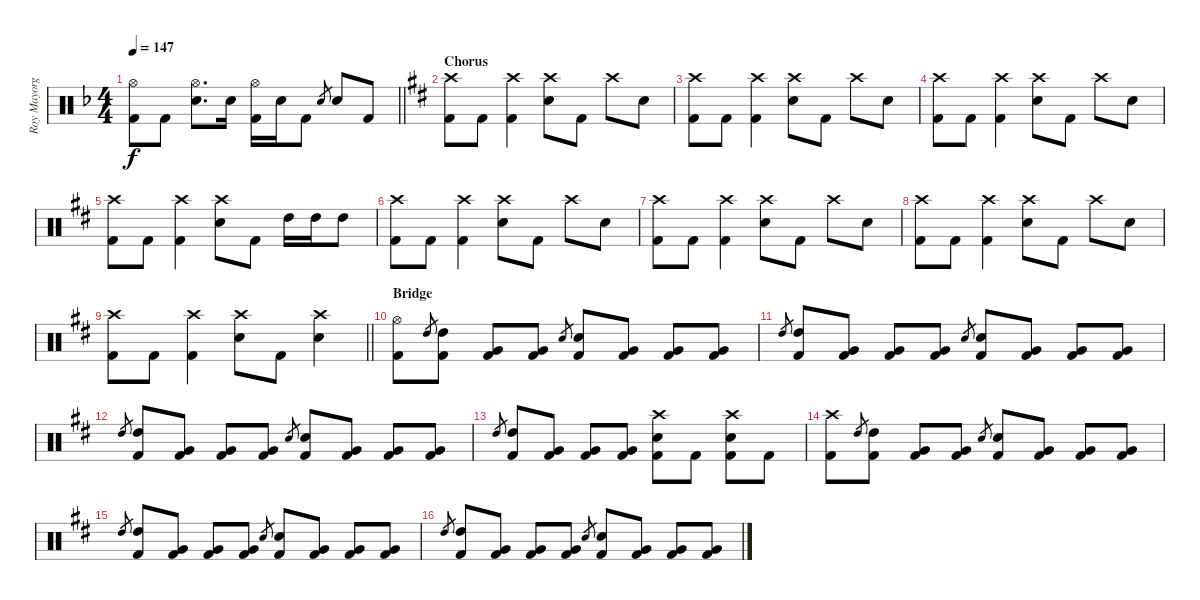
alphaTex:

\track ("Roy Mayorga (Drums)" "Roy Mayorg") {instrument percussion}
\staff {score}
\articulation defaults
\ts (4 4)
\tempo 147
\clef neutral
\barLineRight lightlight
\ks f
("Hi-Hat (open)" "Kick (hit) 2").8{dy f} "Kick (hit) 2".8 ("Hi-Hat (open)" "Snare (hit) 2").8{d} "Snare (hit) 2".16 ("Hi-Hat (open)" "Kick (hit) 2").16 "Snare (hit) 2".16 "Kick (hit) 2".8 "Snare (hit) 2".8{gr} "Snare (hit) 2".8 "Kick (hit) 2".8 |
\section ("" "Chorus")
\ks d
("Crash high (hit)" "Kick (hit) 2").8 "Kick (hit) 2".8 ("Crash high (hit)" "Kick (hit) 2").4 ("Crash high (hit)" "Snare (hit) 2").8 "Kick (hit) 2".8 "Crash high (hit)".8 "Snare (hit) 2".8 |
("Crash high (hit)" "Kick (hit) 2").8 "Kick (hit) 2".8 ("Crash high (hit)" "Kick (hit) 2").4 ("Crash high (hit)" "Snare (hit) 2").8 "Kick (hit) 2".8 "Crash high (hit)".8 "Snare (hit) 2".8 |
("Crash high (hit)" "Kick (hit) 2").8 "Kick (hit) 2".8 ("Crash high (hit)" "Kick (hit) 2").4 ("Crash high (hit)" "Snare (hit) 2").8 "Kick (hit) 2".8 "Crash high (hit)".8 "Snare (hit) 2".8 |
("Crash high (hit)" "Kick (hit) 2").8 "Kick (hit) 2".8 ("Crash high (hit)" "Kick (hit) 2").4 ("Crash high (hit)" "Snare (hit) 2").8 "Kick (hit) 2".8 "High Tom (hit)".16 "High Tom (hit)".16 "High Tom (hit)".8 |
("Crash high (hit)" "Kick (hit) 2").8 "Kick (hit) 2".8 ("Crash high (hit)" "Kick (hit) 2").4 ("Crash high (hit)" "Snare (hit) 2").8 "Kick (hit) 2".8 "Crash high (hit)".8 "Snare (hit) 2".8 |
("Crash high (hit)" "Kick (hit) 2").8 "Kick (hit) 2".8 ("Crash high (hit)" "Kick (hit) 2").4 ("Crash high (hit)" "Snare (hit) 2").8 "Kick (hit) 2".8 "Crash high (hit)".8 "Snare (hit) 2".8 |
("Crash high (hit)" "Kick (hit) 2").8 "Kick (hit) 2".8 ("Crash high (hit)" "Kick (hit) 2").4 ("Crash high (hit)" "Snare (hit) 2").8 "Kick (hit) 2".8 "Crash high (hit)".8 "Snare (hit) 2".8 |
\barLineRight lightlight
("Crash high (hit)" "Kick (hit) 2").8 "Kick (hit) 2".8 ("Crash high (hit)" "Kick (hit) 2").4 ("Crash high (hit)" "Snare (hit) 2").8 "Kick (hit) 2".8 ("Crash high (hit)" "Snare (hit) 2").4 |
\section ("" "Bridge")
("Hi-Hat (open)" "Kick (hit) 2").8 "High Tom (hit)".8{gr} ("High Tom (hit)" "Kick (hit) 2").8 ("Very Low Tom (hit)" "Kick (hit) 2").8 ("Very Low Tom (hit)" "Kick (hit) 2").8 "Snare (hit) 2".8{gr} ("Snare (hit) 2" "Kick (hit) 2").8 ("Very Low Tom (hit)" "Kick (hit) 2").8 ("Very Low Tom (hit)" "Kick (hit) 2").8 ("Very Low Tom (hit)" "Kick (hit) 2").8 |
"High Tom (hit)".8{gr} ("High Tom (hit)" "Kick (hit) 2").8 ("Very Low Tom (hit)" "Kick (hit) 2").8 ("Very Low Tom (hit)" "Kick (hit) 2").8 ("Very Low Tom (hit)" "Kick (hit) 2").8 "Snare (hit) 2".8{gr} ("Snare (hit) 2" "Kick (hit) 2").8 ("Very Low Tom (hit)" "Kick (hit) 2").8 ("Very Low Tom (hit)" "Kick (hit) 2").8 ("Very Low Tom (hit)" "Kick (hit) 2").8 |
"High Tom (hit)".8{gr} ("High Tom (hit)" "Kick (hit) 2").8 ("Very Low Tom (hit)" "Kick (hit) 2").8 ("Very Low Tom (hit)" "Kick (hit) 2").8 ("Very Low Tom (hit)" "Kick (hit) 2").8 "Snare (hit) 2".8{gr} ("Snare (hit) 2" "Kick (hit) 2").8 ("Very Low Tom (hit)" "Kick (hit) 2").8 ("Very Low Tom (hit)" "Kick (hit) 2").8 ("Very Low Tom (hit)" "Kick (hit) 2").8 |
"High Tom (hit)".8{gr} ("High Tom (hit)" "Kick (hit) 2").8 ("Very Low Tom (hit)" "Kick (hit) 2").8 ("Very Low Tom (hit)" "Kick (hit) 2").8 ("Very Low Tom (hit)" "Kick (hit) 2").8 ("Crash high (hit)" "Snare (hit) 2" "Kick (hit) 2").8 "Kick (hit) 2".8 ("Crash high (hit)" "Snare (hit) 2" "Kick (hit) 2").8 "Kick (hit) 2".8 |
("Crash high (hit)" "Kick (hit) 2").8 "High Tom (hit)".8{gr} ("High Tom (hit)" "Kick (hit) 2").8 ("Very Low Tom (hit)" "Kick (hit) 2").8 ("Very Low Tom (hit)" "Kick (hit) 2").8 "Snare (hit) 2".8{gr} ("Snare (hit) 2" "Kick (hit) 2").8 ("Very Low Tom (hit)" "Kick (hit) 2").8 ("Very Low Tom (hit)" "Kick (hit) 2").8 ("Very Low Tom (hit)" "Kick (hit) 2").8 |
"High Tom (hit)".8{gr} ("High Tom (hit)" "Kick (hit) 2").8 ("Very Low Tom (hit)" "Kick (hit) 2").8 ("Very Low Tom (hit)" "Kick (hit) 2").8 ("Very Low Tom (hit)" "Kick (hit) 2").8 "Snare (hit) 2".8{gr} ("Snare (hit) 2" "Kick (hit) 2").8 ("Very Low Tom (hit)" "Kick (hit) 2").8 ("Very Low Tom (hit)" "Kick (hit) 2").8 ("Very Low Tom (hit)" "Kick (hit) 2").8 |
"High Tom (hit)".8{gr} ("High Tom (hit)" "Kick (hit) 2").8 ("Very Low Tom (hit)" "Kick (hit) 2").8 ("Very Low Tom (hit)" "Kick (hit) 2").8 ("Very Low Tom (hit)" "Kick (hit) 2").8 "Snare (hit) 2".8{gr} ("Snare (hit) 2" "Kick (hit) 2").8 ("Very Low Tom (hit)" "Kick (hit) 2").8 ("Very Low Tom (hit)" "Kick (hit) 2").8 ("Very Low Tom (hit)" "Kick (hit) 2").8
